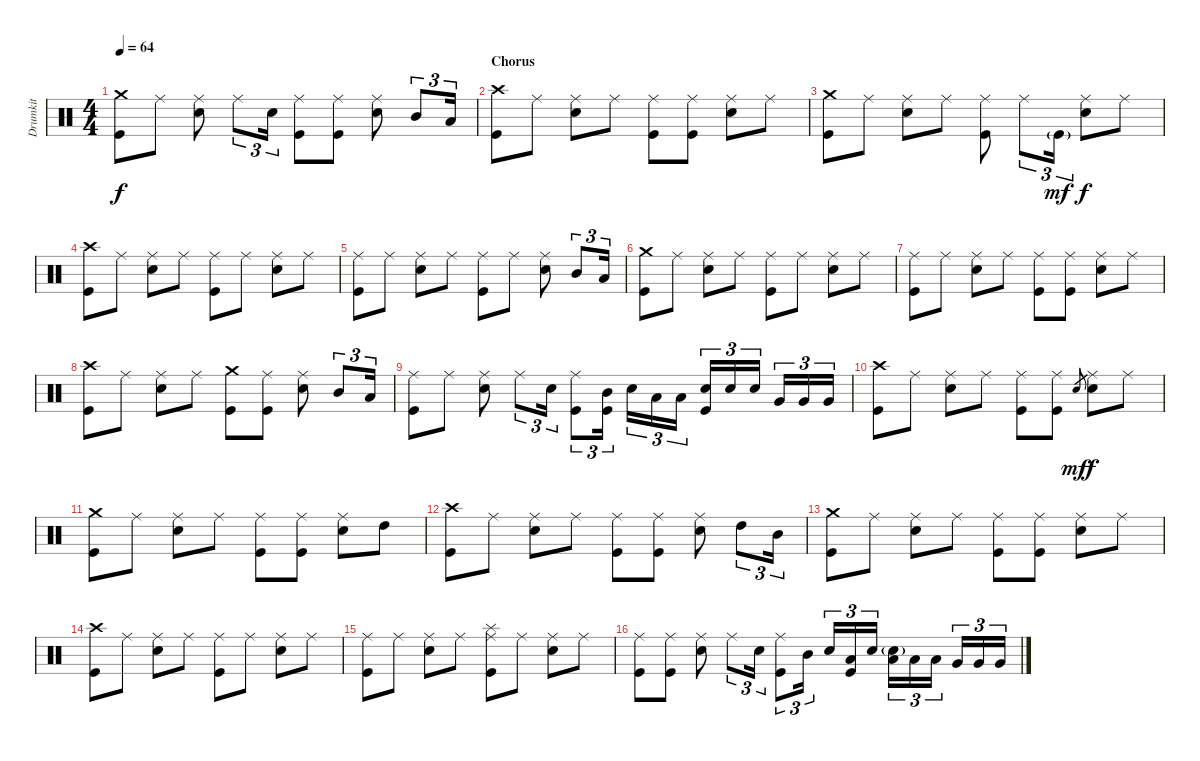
\track ("Drumkit" "Drumkit") {instrument percussion}
\staff {score}
\articulation defaults
\ts (4 4)
\tempo 64
\clef neutral
\ks c
("Crash medium (hit)" "Kick (hit)").8{dy f} "Ride (middle)".8 ("Ride (middle)" "Snare (hit) 2").8 "Ride (middle)".8{tu (3 2)} "Snare (hit) 2".16{tu (3 2)} ("Ride (middle)" "Kick (hit)").8 ("Ride (middle)" "Kick (hit)").8 ("Ride (middle)" "Snare (hit) 2").8 "Mid Tom (hit)".8{tu (3 2)} "Low Tom (hit)".16{tu (3 2)} |
\section ("" "Chorus")
("Crash high (hit)" "Kick (hit)").8 "Ride (middle)".8 ("Ride (middle)" "Snare (hit) 2").8 "Ride (middle)".8 ("Ride (middle)" "Kick (hit)").8 ("Ride (middle)" "Kick (hit)").8 ("Ride (middle)" "Snare (hit) 2").8 "Ride (middle)".8 |
("Crash medium (hit)" "Kick (hit)").8 "Ride (middle)".8 ("Ride (middle)" "Snare (hit) 2").8 "Ride (middle)".8 ("Ride (middle)" "Kick (hit)").8 "Ride (middle)".8{tu (3 2)} "Kick (hit)"{g}.16{tu (3 2) dy mf} ("Ride (middle)" "Snare (hit) 2").8{dy f} "Ride (middle)".8 |
("Crash high (hit)" "Kick (hit)").8 "Ride (middle)".8 ("Ride (middle)" "Snare (hit) 2").8 "Ride (middle)".8 ("Ride (middle)" "Kick (hit)").8 "Ride (middle)".8 ("Ride (middle)" "Snare (hit) 2").8 "Ride (middle)".8 |
("Ride (middle)" "Kick (hit)").8 "Ride (middle)".8 ("Ride (middle)" "Snare (hit) 2").8 "Ride (middle)".8 ("Ride (middle)" "Kick (hit)").8 "Ride (middle)".8 ("Ride (middle)" "Snare (hit) 2").8 "Mid Tom (hit)".8{tu (3 2)} "Low Tom (hit)".16{tu (3 2)} |
("Crash medium (hit)" "Kick (hit)").8 "Ride (middle)".8 ("Ride (middle)" "Snare (hit) 2").8 "Ride (middle)".8 ("Ride (middle)" "Kick (hit)").8 "Ride (middle)".8 ("Ride (middle)" "Snare (hit) 2").8 "Ride (middle)".8 |
("Ride (middle)" "Kick (hit)").8 "Ride (middle)".8 ("Ride (middle)" "Snare (hit) 2").8 "Ride (middle)".8 ("Ride (middle)" "Kick (hit)").8 ("Ride (middle)" "Kick (hit)").8 ("Ride (middle)" "Snare (hit) 2").8 "Ride (middle)".8 |
("Crash high (hit)" "Kick (hit)").8 "Ride (middle)".8 ("Ride (middle)" "Snare (hit) 2").8 "Ride (middle)".8 ("Crash medium (hit)" "Kick (hit)").8 ("Ride (middle)" "Kick (hit)").8 ("Ride (middle)" "Snare (hit) 2").8 "Mid Tom (hit)".8{tu (3 2)} "Low Tom (hit)".16{tu (3 2)} |
("Ride (middle)" "Kick (hit)").8 "Ride (middle)".8 ("Ride (middle)" "Snare (hit) 2").8 "Ride (middle)".8{tu (3 2)} "Snare (hit) 2".16{tu (3 2)} ("Ride (middle)" "Kick (hit)").8{tu (3 2)} ("Mid Tom (hit)" "Kick (hit)").16{tu (3 2)} "Snare (hit) 2".16{tu (3 2)} "Low Tom (hit)".16{tu (3 2)} "Low Tom (hit)".16{tu (3 2)} ("Snare (hit) 2" "Kick (hit)").16{tu (3 2)} "Snare (hit) 2".16{tu (3 2)} "Snare (hit) 2".16{tu (3 2)} "Very Low Tom (hit)".16{tu (3 2)} "Very Low Tom (hit)".16{tu (3 2)} "Very Low Tom (hit)".16{tu (3 2)} |
("Crash high (hit)" "Kick (hit)").8 "Ride (middle)".8 ("Ride (middle)" "Snare (hit) 2").8 "Ride (middle)".8 ("Ride (middle)" "Kick (hit)").8 ("Ride (middle)" "Kick (hit)").8 "Snare (hit)".8{gr dy mf} ("Ride (middle)" "Snare (hit) 2").8{dy f} "Ride (middle)".8 |
("Crash medium (hit)" "Kick (hit)").8 "Ride (middle)".8 ("Ride (middle)" "Snare (hit) 2").8 "Ride (middle)".8 ("Ride (middle)" "Kick (hit)").8 ("Ride (middle)" "Kick (hit)").8 ("Ride (middle)" "Snare (hit) 2").8 "High Tom (hit)".8 |
("Crash high (hit)" "Kick (hit)").8 "Ride (middle)".8 ("Ride (middle)" "Snare (hit) 2").8 "Ride (middle)".8 ("Ride (middle)" "Kick (hit)").8 ("Ride (middle)" "Kick (hit)").8 ("Ride (middle)" "Snare (hit) 2").8 "High Tom (hit)".8{tu (3 2)} "Mid Tom (hit)".16{tu (3 2)} |
("Crash medium (hit)" "Kick (hit)").8 "Ride (middle)".8 ("Ride (middle)" "Snare (hit) 2").8 "Ride (middle)".8 ("Ride (middle)" "Kick (hit)").8 ("Ride (middle)" "Kick (hit)").8 ("Ride (middle)" "Snare (hit) 2").8 "Ride (middle)".8 |
("Crash high (hit)" "Kick (hit)").8 "Ride (middle)".8 ("Ride (middle)" "Snare (hit) 2").8 "Ride (middle)".8 ("Ride (middle)" "Kick (hit)").8 "Ride (middle)".8 ("Ride (middle)" "Snare (hit) 2").8 "Ride (middle)".8 |
("Ride (middle)" "Kick (hit)").8 "Ride (middle)".8 ("Ride (middle)" "Snare (hit) 2").8 "Ride (middle)".8 ("Splash (hit)" "Ride (middle)" "Kick (hit)").8 "Ride (middle)".8 ("Ride (middle)" "Snare (hit) 2").8 "Ride (middle)".8 |
("Ride (middle)" "Kick (hit)").8 ("Ride (middle)" "Kick (hit)").8 ("Ride (middle)" "Snare (hit) 2").8 "Ride (middle)".8{tu (3 2)} "Snare (hit) 2".16{tu (3 2)} ("Ride (middle)" "Kick (hit)").8{tu (3 2)} "Mid Tom (hit)".16{tu (3 2)} "Snare (hit) 2".16{tu (3 2)} ("Low Tom (hit)" "Kick (hit)").16{tu (3 2)} "Snare (hit) 2".16{tu (3 2)} ("Snare (hit) 2"{g} "Low Tom (hit)").16{tu (3 2)} "Low Tom (hit)".16{tu (3 2)} "Low Tom (hit)".16{tu (3 2)} "Very Low Tom (hit)".16{tu (3 2)} "Very Low Tom (hit)".16{tu (3 2)} "Very Low Tom (hit)".16{tu (3 2)}
